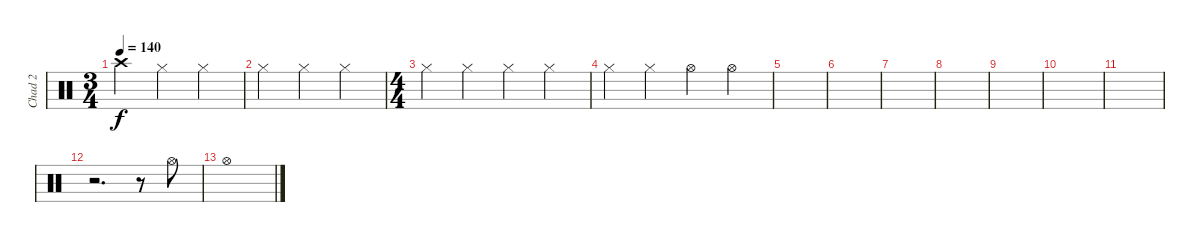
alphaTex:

\track ("Chad 2" "Chad 2") {instrument percussion}
\staff {score}
\articulation defaults
\ts (3 4)
\tempo 140
\clef neutral
\ks c "Crash high (hit)".4{dy f} "Hi-Hat (closed)".4 "Hi-Hat (closed)".4
|
"Hi-Hat (closed)".4 "Hi-Hat (closed)".4 "Hi-Hat (closed)".4 |
\ts (4 4)
"Hi-Hat (closed)".4 "Hi-Hat (closed)".4 "Hi-Hat (closed)".4 "Hi-Hat (closed)".4 |
"Hi-Hat (closed)".4 "Hi-Hat (closed)".4 "Hi-Hat (open)".4 "Hi-Hat (open)".4 |
|
|
|
|
|
|
|
r.2{d} r.8 "Hi-Hat (open)".8 |
"Hi-Hat (open)".1
